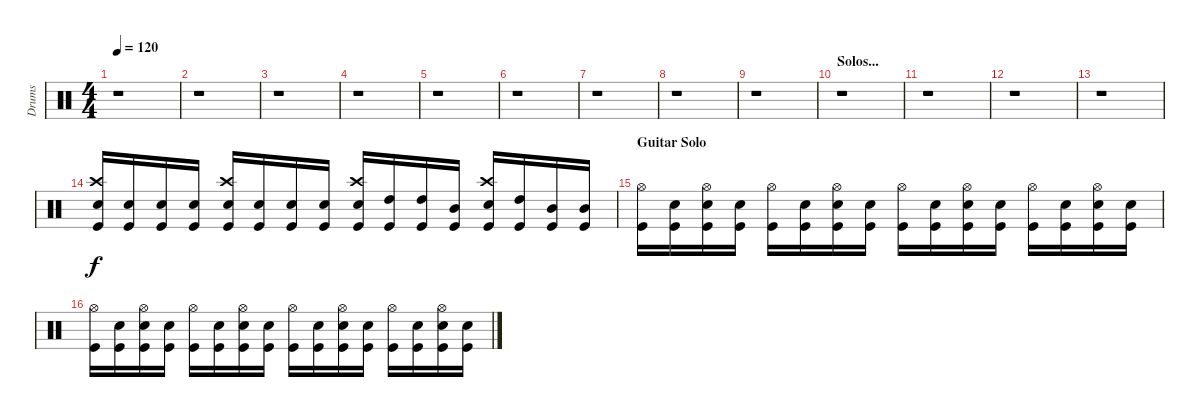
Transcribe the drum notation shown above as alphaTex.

\track ("Drums" "Drums") {instrument percussion}
\staff {score}
\articulation defaults
\ts (4 4)
\tempo 120
\clef neutral
\ks c
r.1{dy f} |
r.1 |
r.1 |
r.1 |
r.1 |
r.1 |
r.1 |
r.1 |
r.1 |
\section ("" "Solos...")
r.1 |
r.1 |
r.1 |
r.1 |
("Kick (hit)" "Crash high (hit)" "Electric Snare (hit)").16 ("Kick (hit)" "Electric Snare (hit)").16 ("Kick (hit)" "Electric Snare (hit)").16 ("Kick (hit)" "Electric Snare (hit)").16 ("Kick (hit)" "Crash high (hit)" "Electric Snare (hit)").16 ("Kick (hit)" "Electric Snare (hit)").16 ("Kick (hit)" "Electric Snare (hit)").16 ("Kick (hit)" "Electric Snare (hit)").16 ("Kick (hit)" "Crash high (hit)" "Electric Snare (hit)").16 ("Kick (hit)" "High Tom (hit)").16 ("Kick (hit)" "High Tom (hit)").16 ("Kick (hit)" "Mid Tom (hit)").16 ("Kick (hit)" "Crash high (hit)" "Electric Snare (hit)").16 ("Kick (hit)" "High Tom (hit)").16 ("Kick (hit)" "Mid Tom (hit)").16 ("Kick (hit)" "Mid Tom (hit)").16 |
\section ("" "Guitar Solo")
("Kick (hit)" "Hi-Hat (open)").16 ("Kick (hit)" "Snare (hit)").16 ("Kick (hit)" "Hi-Hat (open)" "Electric Snare (hit)").16 ("Kick (hit)" "Snare (hit)").16 ("Kick (hit)" "Hi-Hat (open)").16 ("Kick (hit)" "Snare (hit)").16 ("Kick (hit)" "Hi-Hat (open)" "Electric Snare (hit)").16 ("Kick (hit)" "Snare (hit)").16 ("Kick (hit)" "Hi-Hat (open)").16 ("Kick (hit)" "Snare (hit)").16 ("Kick (hit)" "Hi-Hat (open)" "Electric Snare (hit)").16 ("Kick (hit)" "Snare (hit)").16 ("Kick (hit)" "Hi-Hat (open)").16 ("Kick (hit)" "Snare (hit)").16 ("Kick (hit)" "Hi-Hat (open)" "Electric Snare (hit)").16 ("Kick (hit)" "Snare (hit)").16 |
("Kick (hit)" "Hi-Hat (open)").16 ("Kick (hit)" "Snare (hit)").16 ("Kick (hit)" "Hi-Hat (open)" "Electric Snare (hit)").16 ("Kick (hit)" "Snare (hit)").16 ("Kick (hit)" "Hi-Hat (open)").16 ("Kick (hit)" "Snare (hit)").16 ("Kick (hit)" "Hi-Hat (open)" "Electric Snare (hit)").16 ("Kick (hit)" "Snare (hit)").16 ("Kick (hit)" "Hi-Hat (open)").16 ("Kick (hit)" "Snare (hit)").16 ("Kick (hit)" "Hi-Hat (open)" "Electric Snare (hit)").16 ("Kick (hit)" "Snare (hit)").16 ("Kick (hit)" "Hi-Hat (open)").16 ("Kick (hit)" "Snare (hit)").16 ("Kick (hit)" "Hi-Hat (open)" "Electric Snare (hit)").16 ("Kick (hit)" "Snare (hit)").16
